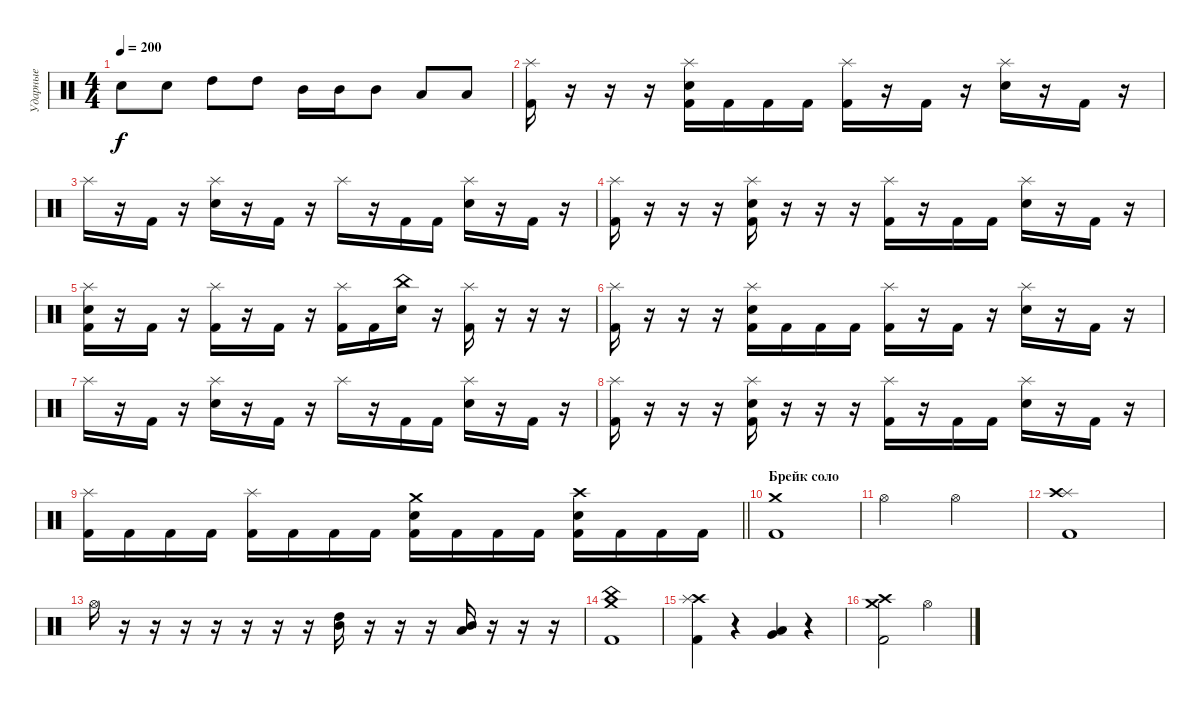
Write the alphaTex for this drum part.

\track ("Ударные" "Ударные") {instrument percussion}
\staff {score}
\articulation defaults
\ts (4 4)
\tempo 200
\clef neutral
\ks c "Electric Snare (hit)".8{dy f} "Electric Snare (hit)".8 "High Tom (hit)".8 "High Tom (hit)".8 "Mid Tom (hit)".16 "Mid Tom (hit)".16 "Mid Tom (hit)".8 "Low Tom (hit)".8 "Low Tom (hit)".8
|
("Kick (hit) 2" "Splash (hit)").16 r.16 r.16 r.16 ("Kick (hit) 2" "Electric Snare (hit)" "Splash (hit)").16 "Kick (hit) 2".16 "Kick (hit) 2".16 "Kick (hit) 2".16 ("Kick (hit) 2" "Splash (hit)").16 r.16 "Kick (hit) 2".16 r.16 ("Electric Snare (hit)" "Splash (hit)").16 r.16 "Kick (hit) 2".16 r.16 |
"Splash (hit)".16 r.16 "Kick (hit) 2".16 r.16 ("Electric Snare (hit)" "Splash (hit)").16 r.16 "Kick (hit) 2".16 r.16 "Splash (hit)".16 r.16 "Kick (hit) 2".16 "Kick (hit) 2".16 ("Electric Snare (hit)" "Splash (hit)").16 r.16 "Kick (hit) 2".16 r.16 |
("Kick (hit) 2" "Splash (hit)").16 r.16 r.16 r.16 ("Kick (hit) 2" "Electric Snare (hit)" "Splash (hit)").16 r.16 r.16 r.16 ("Kick (hit) 2" "Splash (hit)").16 r.16 "Kick (hit) 2".16 "Kick (hit) 2".16 ("Electric Snare (hit)" "Splash (hit)").16 r.16 "Kick (hit) 2".16 r.16 |
("Kick (hit) 2" "Electric Snare (hit)" "Splash (hit)").16 r.16 "Kick (hit) 2".16 r.16 ("Kick (hit) 2" "Splash (hit)").16 r.16 "Kick (hit) 2".16 r.16 ("Kick (hit) 2" "Splash (hit)").16 "Kick (hit) 2".16 ("Electric Snare (hit)" "China (hit)").16 r.16 ("Kick (hit) 2" "Splash (hit)").16 r.16 r.16 r.16 |
("Kick (hit) 2" "Splash (hit)").16 r.16 r.16 r.16 ("Kick (hit) 2" "Electric Snare (hit)" "Splash (hit)").16 "Kick (hit) 2".16 "Kick (hit) 2".16 "Kick (hit) 2".16 ("Kick (hit) 2" "Splash (hit)").16 r.16 "Kick (hit) 2".16 r.16 ("Electric Snare (hit)" "Splash (hit)").16 r.16 "Kick (hit) 2".16 r.16 |
"Splash (hit)".16 r.16 "Kick (hit) 2".16 r.16 ("Electric Snare (hit)" "Splash (hit)").16 r.16 "Kick (hit) 2".16 r.16 "Splash (hit)".16 r.16 "Kick (hit) 2".16 "Kick (hit) 2".16 ("Electric Snare (hit)" "Splash (hit)").16 r.16 "Kick (hit) 2".16 r.16 |
("Kick (hit) 2" "Splash (hit)").16 r.16 r.16 r.16 ("Kick (hit) 2" "Electric Snare (hit)" "Splash (hit)").16 r.16 r.16 r.16 ("Kick (hit) 2" "Splash (hit)").16 r.16 "Kick (hit) 2".16 "Kick (hit) 2".16 ("Electric Snare (hit)" "Splash (hit)").16 r.16 "Kick (hit) 2".16 r.16 |
\barLineRight lightlight
("Kick (hit) 2" "Splash (hit)").16 "Kick (hit) 2".16 "Kick (hit) 2".16 "Kick (hit) 2".16 ("Kick (hit) 2" "Splash (hit)").16 "Kick (hit) 2".16 "Kick (hit) 2".16 "Kick (hit) 2".16 ("Kick (hit) 2" "Electric Snare (hit)" "Crash medium (hit)").16 "Kick (hit) 2".16 "Kick (hit) 2".16 "Kick (hit) 2".16 ("Kick (hit) 2" "Electric Snare (hit)" "Crash high (hit)").16 "Kick (hit) 2".16 "Kick (hit) 2".16 "Kick (hit) 2".16 |
\section ("" "Брейк соло")
("Kick (hit) 2" "Crash medium (hit)").1 |
"Hi-Hat (open)".2 "Hi-Hat (open)".2 |
("Kick (hit) 2" "Splash (hit)" "Crash high (hit)").1 |
"Hi-Hat (open)".16 r.16 r.16 r.16 r.16 r.16 r.16 r.16 ("Mid Tom (hit)" "High Tom (hit)").16 r.16 r.16 r.16 ("Low Tom (hit)" "Mid Tom (hit)").16 r.16 r.16 r.16 |
("Kick (hit) 2" "Crash medium (hit)" "China (hit)").1 |
("Kick (hit) 2" "Crash high (hit)" "Splash (hit)").4 r.4 ("Low Floor Tom (hit)" "Very Low Tom (hit)").4 r.4 |
("Kick (hit) 2" "Crash high (hit)" "Crash medium (hit)").2 "Hi-Hat (open)".2
